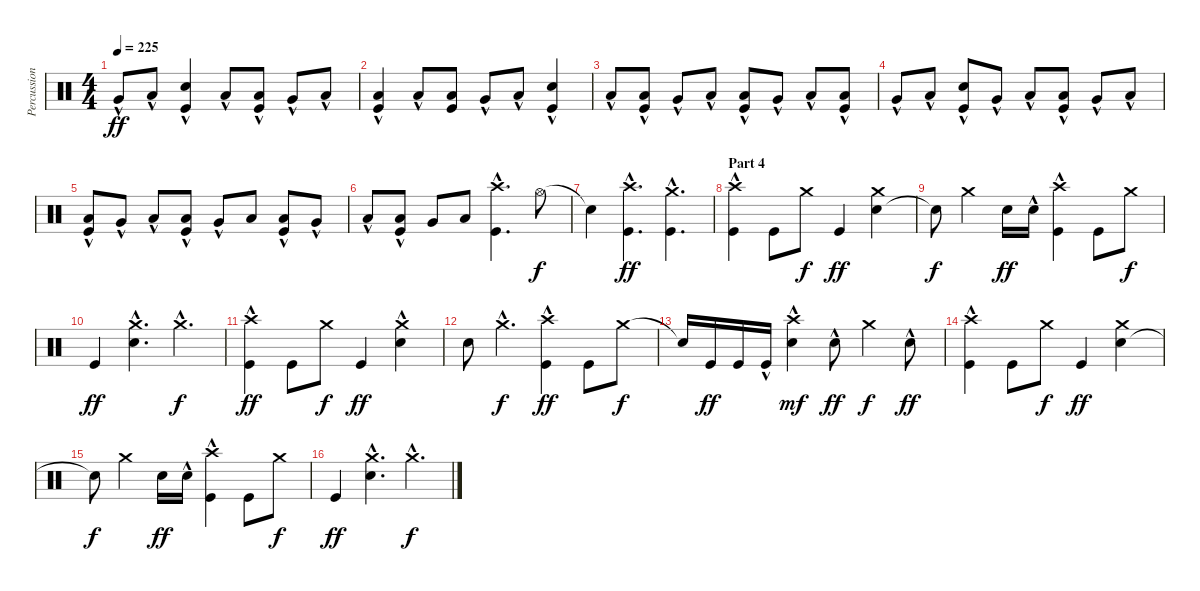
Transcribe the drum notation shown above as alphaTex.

\track ("Percussions" "Percussion") {instrument percussion}
\staff {score}
\articulation defaults
\ts (4 4)
\tempo 225
\clef neutral
\ks c "Very Low Tom (hit)"{hac}.8{dy ff} "Low Floor Tom (hit)"{hac}.8
("Kick (hit)"{hac} "Electric Snare (hit)"{hac}).4 "Low Floor Tom (hit)"{hac}.8 ("Kick (hit)"{hac} "Low Tom (hit)"{hac}).8 "Very Low Tom (hit)"{hac}.8 "Low Floor Tom (hit)"{hac}.8 |
("Kick (hit)"{hac} "Low Tom (hit)"{hac}).4 "Low Floor Tom (hit)"{hac}.8 ("Kick (hit)" "Low Tom (hit)").8 "Very Low Tom (hit)"{hac}.8 "Low Floor Tom (hit)"{hac}.8 ("Kick (hit)"{hac} "Electric Snare (hit)"{hac}).4 |
"Low Floor Tom (hit)"{hac}.8 ("Kick (hit)"{hac} "Low Tom (hit)"{hac}).8 "Very Low Tom (hit)"{hac}.8 "Low Floor Tom (hit)"{hac}.8 ("Kick (hit)"{hac} "Low Tom (hit)").8 "Very Low Tom (hit)"{hac}.8 "Low Floor Tom (hit)"{hac}.8 ("Kick (hit)"{hac} "Low Tom (hit)"{hac}).8 |
"Very Low Tom (hit)"{hac}.8 "Low Floor Tom (hit)"{hac}.8 ("Kick (hit)"{hac} "Electric Snare (hit)"{hac}).8 "Very Low Tom (hit)"{hac}.8 "Low Floor Tom (hit)"{hac}.8 ("Kick (hit)"{hac} "Low Tom (hit)"{hac}).8 "Very Low Tom (hit)"{hac}.8 "Low Floor Tom (hit)"{hac}.8 |
("Kick (hit)" "Low Tom (hit)"{hac}).8 "Very Low Tom (hit)"{hac}.8 "Low Floor Tom (hit)"{hac}.8 ("Kick (hit)"{hac} "Low Tom (hit)"{hac}).8 "Very Low Tom (hit)"{hac}.8 "Low Floor Tom (hit)".8 ("Kick (hit)"{hac} "Low Floor Tom (hit)"{hac}).8 "Very Low Tom (hit)"{hac}.8 |
"Low Floor Tom (hit)"{hac}.8 ("Kick (hit)"{hac} "Low Tom (hit)"{hac}).8 "Very Low Tom (hit)".8 "Low Floor Tom (hit)".8 ("Kick (hit)"{hac} "Crash high (hit)"{hac}).4{d} "Hi-Hat (open)".8{dy f} |
"Snare (hit)"{t}.4 ("Kick (hit)"{hac} "Crash high (hit)"{hac}).4{d dy ff} ("Kick (hit)"{hac} "Crash medium (hit)"{hac}).4{d} |
\section ("" "Part 4")
("Kick (hit)" "Crash high (hit)"{hac}).4 "Kick (hit)".8 "Crash medium (hit)".8{dy f} "Kick (hit)".4{dy ff} ("Electric Snare (hit)" "Crash medium (hit)").4 |
"Snare (hit)"{t}.8{dy f} "Crash medium (hit)".4 "Electric Snare (hit)".16{dy ff} "Electric Snare (hit)"{hac}.16 ("Kick (hit)" "Crash high (hit)"{hac}).4 "Kick (hit)".8 "Crash medium (hit)".8{dy f} |
"Kick (hit)".4{dy ff} ("Electric Snare (hit)" "Crash medium (hit)"{hac}).4{d} "Crash medium (hit)"{hac}.4{d dy f} |
("Kick (hit)" "Crash high (hit)"{hac}).4{dy ff} "Kick (hit)".8 "Crash medium (hit)".8{dy f} "Kick (hit)".4{dy ff} ("Electric Snare (hit)" "Crash medium (hit)"{hac}).4 |
"Electric Snare (hit)".8 "Crash medium (hit)"{hac}.4{d dy f} ("Kick (hit)" "Crash high (hit)"{hac}).4{dy ff} "Kick (hit)".8 "Crash medium (hit)".8{dy f} |
"Snare (hit)"{t}.16 "Kick (hit)".16{dy ff} "Kick (hit)".16 "Kick (hit)"{hac}.16 ("Electric Snare (hit)" "Crash high (hit)"{hac}).4{dy mf} "Electric Snare (hit)"{hac}.8{dy ff} "Crash medium (hit)".4{dy f} "Electric Snare (hit)"{hac}.8{dy ff} |
("Kick (hit)" "Crash high (hit)"{hac}).4 "Kick (hit)".8 "Crash medium (hit)".8{dy f} "Kick (hit)".4{dy ff} ("Electric Snare (hit)" "Crash medium (hit)").4 |
"Snare (hit)"{t}.8{dy f} "Crash medium (hit)".4 "Electric Snare (hit)".16{dy ff} "Electric Snare (hit)"{hac}.16 ("Kick (hit)" "Crash high (hit)"{hac}).4 "Kick (hit)".8 "Crash medium (hit)".8{dy f} |
"Kick (hit)".4{dy ff} ("Electric Snare (hit)" "Crash medium (hit)"{hac}).4{d} "Crash medium (hit)"{hac}.4{d dy f}
